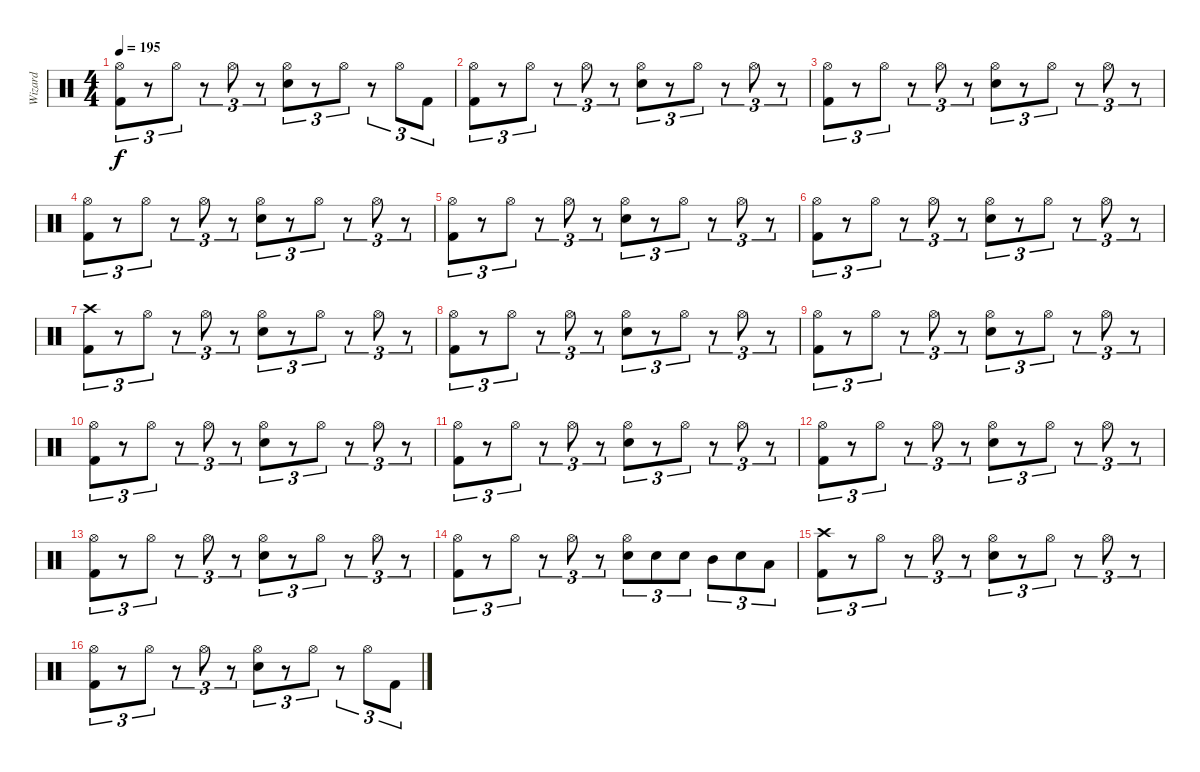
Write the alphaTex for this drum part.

\track ("Wizard" "Wizard") {instrument percussion}
\staff {score}
\articulation defaults
\ts (4 4)
\tempo 195
\clef neutral
\ks c
("Hi-Hat (open)" "Kick (hit) 2").8{tu (3 2) dy f} r.8{tu (3 2)} "Hi-Hat (open)".8{tu (3 2)} r.8{tu (3 2)} "Hi-Hat (open)".8{tu (3 2)} r.8{tu (3 2)} ("Hi-Hat (open)" "Snare (hit) 2").8{tu (3 2)} r.8{tu (3 2)} "Hi-Hat (open)".8{tu (3 2)} r.8{tu (3 2)} "Hi-Hat (open)".8{tu (3 2)} "Kick (hit) 2".8{tu (3 2)} |
("Hi-Hat (open)" "Kick (hit) 2").8{tu (3 2)} r.8{tu (3 2)} "Hi-Hat (open)".8{tu (3 2)} r.8{tu (3 2)} "Hi-Hat (open)".8{tu (3 2)} r.8{tu (3 2)} ("Hi-Hat (open)" "Snare (hit) 2").8{tu (3 2)} r.8{tu (3 2)} "Hi-Hat (open)".8{tu (3 2)} r.8{tu (3 2)} "Hi-Hat (open)".8{tu (3 2)} r.8{tu (3 2)} |
("Hi-Hat (open)" "Kick (hit) 2").8{tu (3 2)} r.8{tu (3 2)} "Hi-Hat (open)".8{tu (3 2)} r.8{tu (3 2)} "Hi-Hat (open)".8{tu (3 2)} r.8{tu (3 2)} ("Hi-Hat (open)" "Snare (hit) 2").8{tu (3 2)} r.8{tu (3 2)} "Hi-Hat (open)".8{tu (3 2)} r.8{tu (3 2)} "Hi-Hat (open)".8{tu (3 2)} r.8{tu (3 2)} |
("Hi-Hat (open)" "Kick (hit) 2").8{tu (3 2)} r.8{tu (3 2)} "Hi-Hat (open)".8{tu (3 2)} r.8{tu (3 2)} "Hi-Hat (open)".8{tu (3 2)} r.8{tu (3 2)} ("Hi-Hat (open)" "Snare (hit) 2").8{tu (3 2)} r.8{tu (3 2)} "Hi-Hat (open)".8{tu (3 2)} r.8{tu (3 2)} "Hi-Hat (open)".8{tu (3 2)} r.8{tu (3 2)} |
("Hi-Hat (open)" "Kick (hit) 2").8{tu (3 2)} r.8{tu (3 2)} "Hi-Hat (open)".8{tu (3 2)} r.8{tu (3 2)} "Hi-Hat (open)".8{tu (3 2)} r.8{tu (3 2)} ("Hi-Hat (open)" "Snare (hit) 2").8{tu (3 2)} r.8{tu (3 2)} "Hi-Hat (open)".8{tu (3 2)} r.8{tu (3 2)} "Hi-Hat (open)".8{tu (3 2)} r.8{tu (3 2)} |
("Hi-Hat (open)" "Kick (hit) 2").8{tu (3 2)} r.8{tu (3 2)} "Hi-Hat (open)".8{tu (3 2)} r.8{tu (3 2)} "Hi-Hat (open)".8{tu (3 2)} r.8{tu (3 2)} ("Hi-Hat (open)" "Snare (hit) 2").8{tu (3 2)} r.8{tu (3 2)} "Hi-Hat (open)".8{tu (3 2)} r.8{tu (3 2)} "Hi-Hat (open)".8{tu (3 2)} r.8{tu (3 2)} |
("Crash high (hit)" "Kick (hit) 2").8{tu (3 2)} r.8{tu (3 2)} "Hi-Hat (open)".8{tu (3 2)} r.8{tu (3 2)} "Hi-Hat (open)".8{tu (3 2)} r.8{tu (3 2)} ("Hi-Hat (open)" "Snare (hit) 2").8{tu (3 2)} r.8{tu (3 2)} "Hi-Hat (open)".8{tu (3 2)} r.8{tu (3 2)} "Hi-Hat (open)".8{tu (3 2)} r.8{tu (3 2)} |
("Hi-Hat (open)" "Kick (hit) 2").8{tu (3 2)} r.8{tu (3 2)} "Hi-Hat (open)".8{tu (3 2)} r.8{tu (3 2)} "Hi-Hat (open)".8{tu (3 2)} r.8{tu (3 2)} ("Hi-Hat (open)" "Snare (hit) 2").8{tu (3 2)} r.8{tu (3 2)} "Hi-Hat (open)".8{tu (3 2)} r.8{tu (3 2)} "Hi-Hat (open)".8{tu (3 2)} r.8{tu (3 2)} |
("Hi-Hat (open)" "Kick (hit) 2").8{tu (3 2)} r.8{tu (3 2)} "Hi-Hat (open)".8{tu (3 2)} r.8{tu (3 2)} "Hi-Hat (open)".8{tu (3 2)} r.8{tu (3 2)} ("Hi-Hat (open)" "Snare (hit) 2").8{tu (3 2)} r.8{tu (3 2)} "Hi-Hat (open)".8{tu (3 2)} r.8{tu (3 2)} "Hi-Hat (open)".8{tu (3 2)} r.8{tu (3 2)} |
("Hi-Hat (open)" "Kick (hit) 2").8{tu (3 2)} r.8{tu (3 2)} "Hi-Hat (open)".8{tu (3 2)} r.8{tu (3 2)} "Hi-Hat (open)".8{tu (3 2)} r.8{tu (3 2)} ("Hi-Hat (open)" "Snare (hit) 2").8{tu (3 2)} r.8{tu (3 2)} "Hi-Hat (open)".8{tu (3 2)} r.8{tu (3 2)} "Hi-Hat (open)".8{tu (3 2)} r.8{tu (3 2)} |
("Hi-Hat (open)" "Kick (hit) 2").8{tu (3 2)} r.8{tu (3 2)} "Hi-Hat (open)".8{tu (3 2)} r.8{tu (3 2)} "Hi-Hat (open)".8{tu (3 2)} r.8{tu (3 2)} ("Hi-Hat (open)" "Snare (hit) 2").8{tu (3 2)} r.8{tu (3 2)} "Hi-Hat (open)".8{tu (3 2)} r.8{tu (3 2)} "Hi-Hat (open)".8{tu (3 2)} r.8{tu (3 2)} |
("Hi-Hat (open)" "Kick (hit) 2").8{tu (3 2)} r.8{tu (3 2)} "Hi-Hat (open)".8{tu (3 2)} r.8{tu (3 2)} "Hi-Hat (open)".8{tu (3 2)} r.8{tu (3 2)} ("Hi-Hat (open)" "Snare (hit) 2").8{tu (3 2)} r.8{tu (3 2)} "Hi-Hat (open)".8{tu (3 2)} r.8{tu (3 2)} "Hi-Hat (open)".8{tu (3 2)} r.8{tu (3 2)} |
("Hi-Hat (open)" "Kick (hit) 2").8{tu (3 2)} r.8{tu (3 2)} "Hi-Hat (open)".8{tu (3 2)} r.8{tu (3 2)} "Hi-Hat (open)".8{tu (3 2)} r.8{tu (3 2)} ("Hi-Hat (open)" "Snare (hit) 2").8{tu (3 2)} r.8{tu (3 2)} "Hi-Hat (open)".8{tu (3 2)} r.8{tu (3 2)} "Hi-Hat (open)".8{tu (3 2)} r.8{tu (3 2)} |
("Hi-Hat (open)" "Kick (hit) 2").8{tu (3 2)} r.8{tu (3 2)} "Hi-Hat (open)".8{tu (3 2)} r.8{tu (3 2)} "Hi-Hat (open)".8{tu (3 2)} r.8{tu (3 2)} ("Hi-Hat (open)" "Snare (hit) 2").8{tu (3 2)} "Snare (hit) 2".8{tu (3 2)} "Snare (hit) 2".8{tu (3 2)} "Mid Tom (hit)".8{tu (3 2)} "Snare (hit) 2".8{tu (3 2)} "Low Tom (hit)".8{tu (3 2)} |
("Crash high (hit)" "Kick (hit) 2").8{tu (3 2)} r.8{tu (3 2)} "Hi-Hat (open)".8{tu (3 2)} r.8{tu (3 2)} "Hi-Hat (open)".8{tu (3 2)} r.8{tu (3 2)} ("Hi-Hat (open)" "Snare (hit) 2").8{tu (3 2)} r.8{tu (3 2)} "Hi-Hat (open)".8{tu (3 2)} r.8{tu (3 2)} "Hi-Hat (open)".8{tu (3 2)} r.8{tu (3 2)} |
("Hi-Hat (open)" "Kick (hit) 2").8{tu (3 2)} r.8{tu (3 2)} "Hi-Hat (open)".8{tu (3 2)} r.8{tu (3 2)} "Hi-Hat (open)".8{tu (3 2)} r.8{tu (3 2)} ("Hi-Hat (open)" "Snare (hit) 2").8{tu (3 2)} r.8{tu (3 2)} "Hi-Hat (open)".8{tu (3 2)} r.8{tu (3 2)} "Hi-Hat (open)".8{tu (3 2)} "Kick (hit) 2".8{tu (3 2)}
